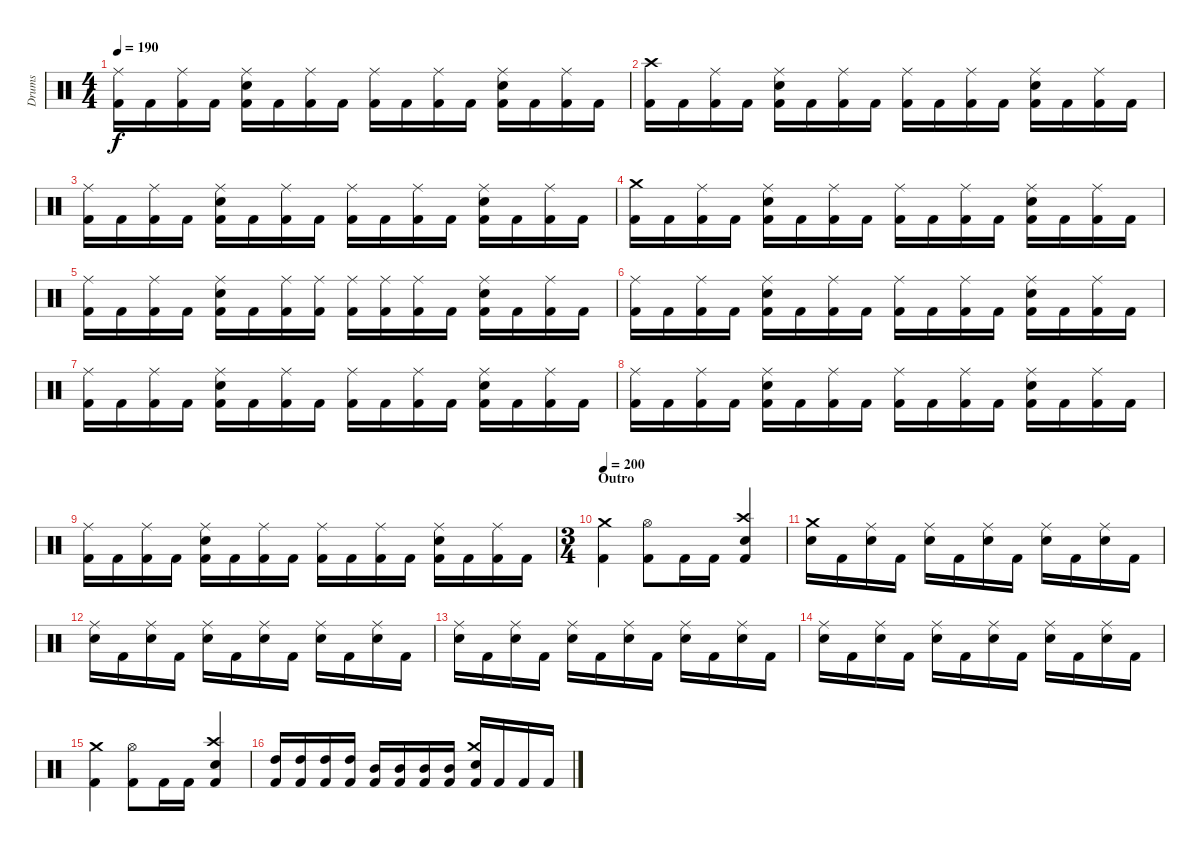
\track ("Drums" "Drums") {instrument percussion}
\staff {score}
\articulation defaults
\ts (4 4)
\tempo 190
\clef neutral
\ks c
("Kick (hit) 2" "Ride (middle)").16{dy f} "Kick (hit) 2".16 ("Kick (hit) 2" "Ride (middle)").16 "Kick (hit) 2".16 ("Kick (hit) 2" "Electric Snare (hit)" "Ride (middle)").16 "Kick (hit) 2".16 ("Kick (hit) 2" "Ride (middle)").16 "Kick (hit) 2".16 ("Kick (hit) 2" "Ride (middle)").16 "Kick (hit) 2".16 ("Kick (hit) 2" "Ride (middle)").16 "Kick (hit) 2".16 ("Kick (hit) 2" "Electric Snare (hit)" "Ride (middle)").16 "Kick (hit) 2".16 ("Kick (hit) 2" "Ride (middle)").16 "Kick (hit) 2".16 |
("Kick (hit) 2" "Crash high (hit)").16 "Kick (hit) 2".16 ("Kick (hit) 2" "Ride (middle)").16 "Kick (hit) 2".16 ("Kick (hit) 2" "Electric Snare (hit)" "Ride (middle)").16 "Kick (hit) 2".16 ("Kick (hit) 2" "Ride (middle)").16 "Kick (hit) 2".16 ("Kick (hit) 2" "Ride (middle)").16 "Kick (hit) 2".16 ("Kick (hit) 2" "Ride (middle)").16 "Kick (hit) 2".16 ("Kick (hit) 2" "Electric Snare (hit)" "Ride (middle)").16 "Kick (hit) 2".16 ("Kick (hit) 2" "Ride (middle)").16 "Kick (hit) 2".16 |
("Kick (hit) 2" "Ride (middle)").16 "Kick (hit) 2".16 ("Kick (hit) 2" "Ride (middle)").16 "Kick (hit) 2".16 ("Kick (hit) 2" "Electric Snare (hit)" "Ride (middle)").16 "Kick (hit) 2".16 ("Kick (hit) 2" "Ride (middle)").16 "Kick (hit) 2".16 ("Kick (hit) 2" "Ride (middle)").16 "Kick (hit) 2".16 ("Kick (hit) 2" "Ride (middle)").16 "Kick (hit) 2".16 ("Kick (hit) 2" "Electric Snare (hit)" "Ride (middle)").16 "Kick (hit) 2".16 ("Kick (hit) 2" "Ride (middle)").16 "Kick (hit) 2".16 |
("Kick (hit) 2" "Crash medium (hit)").16 "Kick (hit) 2".16 ("Kick (hit) 2" "Ride (middle)").16 "Kick (hit) 2".16 ("Kick (hit) 2" "Electric Snare (hit)" "Ride (middle)").16 "Kick (hit) 2".16 ("Kick (hit) 2" "Ride (middle)").16 "Kick (hit) 2".16 ("Kick (hit) 2" "Ride (middle)").16 "Kick (hit) 2".16 ("Kick (hit) 2" "Ride (middle)").16 "Kick (hit) 2".16 ("Kick (hit) 2" "Electric Snare (hit)" "Ride (middle)").16 "Kick (hit) 2".16 ("Kick (hit) 2" "Ride (middle)").16 "Kick (hit) 2".16 |
("Kick (hit) 2" "Ride (middle)").16 "Kick (hit) 2".16 ("Kick (hit) 2" "Ride (middle)").16 "Kick (hit) 2".16 ("Kick (hit) 2" "Electric Snare (hit)" "Ride (middle)").16 "Kick (hit) 2".16 ("Kick (hit) 2" "Ride (middle)").16 ("Kick (hit) 2" "Ride (middle)").16 ("Kick (hit) 2" "Ride (middle)").16 ("Kick (hit) 2" "Ride (middle)").16 ("Kick (hit) 2" "Ride (middle)").16 "Kick (hit) 2".16 ("Kick (hit) 2" "Electric Snare (hit)" "Ride (middle)").16 "Kick (hit) 2".16 ("Kick (hit) 2" "Ride (middle)").16 "Kick (hit) 2".16 |
("Kick (hit) 2" "Ride (middle)").16 "Kick (hit) 2".16 ("Kick (hit) 2" "Ride (middle)").16 "Kick (hit) 2".16 ("Kick (hit) 2" "Electric Snare (hit)" "Ride (middle)").16 "Kick (hit) 2".16 ("Kick (hit) 2" "Ride (middle)").16 "Kick (hit) 2".16 ("Kick (hit) 2" "Ride (middle)").16 "Kick (hit) 2".16 ("Kick (hit) 2" "Ride (middle)").16 "Kick (hit) 2".16 ("Kick (hit) 2" "Electric Snare (hit)" "Ride (middle)").16 "Kick (hit) 2".16 ("Kick (hit) 2" "Ride (middle)").16 "Kick (hit) 2".16 |
("Kick (hit) 2" "Ride (middle)").16 "Kick (hit) 2".16 ("Kick (hit) 2" "Ride (middle)").16 "Kick (hit) 2".16 ("Kick (hit) 2" "Electric Snare (hit)" "Ride (middle)").16 "Kick (hit) 2".16 ("Kick (hit) 2" "Ride (middle)").16 "Kick (hit) 2".16 ("Kick (hit) 2" "Ride (middle)").16 "Kick (hit) 2".16 ("Kick (hit) 2" "Ride (middle)").16 "Kick (hit) 2".16 ("Kick (hit) 2" "Electric Snare (hit)" "Ride (middle)").16 "Kick (hit) 2".16 ("Kick (hit) 2" "Ride (middle)").16 "Kick (hit) 2".16 |
("Kick (hit) 2" "Ride (middle)").16 "Kick (hit) 2".16 ("Kick (hit) 2" "Ride (middle)").16 "Kick (hit) 2".16 ("Kick (hit) 2" "Electric Snare (hit)" "Ride (middle)").16 "Kick (hit) 2".16 ("Kick (hit) 2" "Ride (middle)").16 "Kick (hit) 2".16 ("Kick (hit) 2" "Ride (middle)").16 "Kick (hit) 2".16 ("Kick (hit) 2" "Ride (middle)").16 "Kick (hit) 2".16 ("Kick (hit) 2" "Electric Snare (hit)" "Ride (middle)").16 "Kick (hit) 2".16 ("Kick (hit) 2" "Ride (middle)").16 "Kick (hit) 2".16 |
("Kick (hit) 2" "Ride (middle)").16 "Kick (hit) 2".16 ("Kick (hit) 2" "Ride (middle)").16 "Kick (hit) 2".16 ("Kick (hit) 2" "Electric Snare (hit)" "Ride (middle)").16 "Kick (hit) 2".16 ("Kick (hit) 2" "Ride (middle)").16 "Kick (hit) 2".16 ("Kick (hit) 2" "Ride (middle)").16 "Kick (hit) 2".16 ("Kick (hit) 2" "Ride (middle)").16 "Kick (hit) 2".16 ("Kick (hit) 2" "Electric Snare (hit)" "Ride (middle)").16 "Kick (hit) 2".16 ("Kick (hit) 2" "Ride (middle)").16 "Kick (hit) 2".16 |
\ts (3 4)
\section ("" "Outro")
\tempo 200
("Kick (hit) 2" "Crash medium (hit)").4 ("Kick (hit) 2" "Hi-Hat (open)").8 "Kick (hit) 2".16 "Kick (hit) 2".16 ("Kick (hit) 2" "Snare (hit) 2" "Crash high (hit)").4 |
("Snare (hit) 2" "Crash medium (hit)").16 "Kick (hit) 2".16 ("Snare (hit) 2" "Ride (middle)").16 "Kick (hit) 2".16 ("Snare (hit) 2" "Ride (middle)").16 "Kick (hit) 2".16 ("Snare (hit) 2" "Ride (middle)").16 "Kick (hit) 2".16 ("Snare (hit) 2" "Ride (middle)").16 "Kick (hit) 2".16 ("Snare (hit) 2" "Ride (middle)").16 "Kick (hit) 2".16 |
("Snare (hit) 2" "Ride (middle)").16 "Kick (hit) 2".16 ("Snare (hit) 2" "Ride (middle)").16 "Kick (hit) 2".16 ("Snare (hit) 2" "Ride (middle)").16 "Kick (hit) 2".16 ("Snare (hit) 2" "Ride (middle)").16 "Kick (hit) 2".16 ("Snare (hit) 2" "Ride (middle)").16 "Kick (hit) 2".16 ("Snare (hit) 2" "Ride (middle)").16 "Kick (hit) 2".16 |
("Snare (hit) 2" "Ride (middle)").16 "Kick (hit) 2".16 ("Snare (hit) 2" "Ride (middle)").16 "Kick (hit) 2".16 ("Snare (hit) 2" "Ride (middle)").16 "Kick (hit) 2".16 ("Snare (hit) 2" "Ride (middle)").16 "Kick (hit) 2".16 ("Snare (hit) 2" "Ride (middle)").16 "Kick (hit) 2".16 ("Snare (hit) 2" "Ride (middle)").16 "Kick (hit) 2".16 |
("Snare (hit) 2" "Ride (middle)").16 "Kick (hit) 2".16 ("Snare (hit) 2" "Ride (middle)").16 "Kick (hit) 2".16 ("Snare (hit) 2" "Ride (middle)").16 "Kick (hit) 2".16 ("Snare (hit) 2" "Ride (middle)").16 "Kick (hit) 2".16 ("Snare (hit) 2" "Ride (middle)").16 "Kick (hit) 2".16 ("Snare (hit) 2" "Ride (middle)").16 "Kick (hit) 2".16 |
("Kick (hit) 2" "Crash medium (hit)").4 ("Kick (hit) 2" "Hi-Hat (open)").8 "Kick (hit) 2".16 "Kick (hit) 2".16 ("Kick (hit) 2" "Snare (hit) 2" "Crash high (hit)").4 |
("Kick (hit) 2" "High Tom (hit)").16 ("Kick (hit) 2" "High Tom (hit)").16 ("Kick (hit) 2" "High Tom (hit)").16 ("Kick (hit) 2" "High Tom (hit)").16 ("Kick (hit) 2" "Mid Tom (hit)").16 ("Kick (hit) 2" "Mid Tom (hit)").16 ("Kick (hit) 2" "Mid Tom (hit)").16 ("Kick (hit) 2" "Mid Tom (hit)").16 ("Kick (hit) 2" "Snare (hit) 2" "Crash medium (hit)").16 "Kick (hit) 2".16 "Kick (hit) 2".16 "Kick (hit) 2".16
